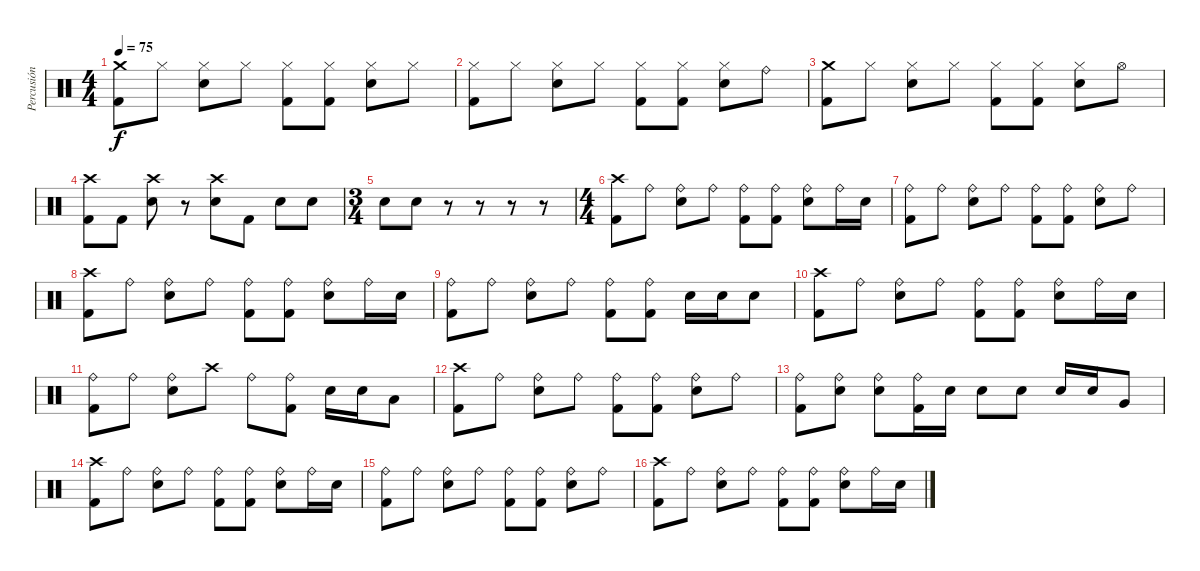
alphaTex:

\track ("Percusión" "Percusión") {instrument percussion}
\staff {score}
\articulation defaults
\ts (4 4)
\tempo 75
\clef neutral
\ks c
("Crash medium (hit)" "Kick (hit) 2").8{dy f} "Hi-Hat (closed)".8 ("Hi-Hat (closed)" "Electric Snare (hit)").8 "Hi-Hat (closed)".8 ("Hi-Hat (closed)" "Kick (hit) 2").8 ("Hi-Hat (closed)" "Kick (hit) 2").8 ("Hi-Hat (closed)" "Electric Snare (hit)").8 "Hi-Hat (closed)".8 |
("Hi-Hat (closed)" "Kick (hit) 2").8 "Hi-Hat (closed)".8 ("Hi-Hat (closed)" "Electric Snare (hit)").8 "Hi-Hat (closed)".8 ("Hi-Hat (closed)" "Kick (hit) 2").8 ("Hi-Hat (closed)" "Kick (hit) 2").8 ("Hi-Hat (closed)" "Electric Snare (hit)").8 "Ride (bell)".8 |
("Crash medium (hit)" "Kick (hit) 2").8 "Hi-Hat (closed)".8 ("Hi-Hat (closed)" "Electric Snare (hit)").8 "Hi-Hat (closed)".8 ("Hi-Hat (closed)" "Kick (hit) 2").8 ("Hi-Hat (closed)" "Kick (hit) 2").8 ("Hi-Hat (closed)" "Electric Snare (hit)").8 "Hi-Hat (open)".8 |
("Crash high (hit)" "Kick (hit) 2").8 "Kick (hit) 2".8 ("Crash high (hit)" "Electric Snare (hit)").8 r.8 ("Crash high (hit)" "Electric Snare (hit)").8 "Kick (hit) 2".8 "Electric Snare (hit)".8 "Electric Snare (hit)".8 |
\ts (3 4)
"Electric Snare (hit)".8 "Electric Snare (hit)".8 r.8 r.8 r.8 r.8 |
\ts (4 4)
("Crash high (hit)" "Kick (hit) 2").8 "Ride (bell)".8 ("Ride (bell)" "Electric Snare (hit)").8 "Ride (bell)".8 ("Ride (bell)" "Kick (hit) 2").8 ("Ride (bell)" "Kick (hit) 2").8 ("Ride (bell)" "Electric Snare (hit)").8 "Ride (bell)".16 "Electric Snare (hit)".16 |
("Ride (bell)" "Kick (hit) 2").8 "Ride (bell)".8 ("Ride (bell)" "Electric Snare (hit)").8 "Ride (bell)".8 ("Ride (bell)" "Kick (hit) 2").8 ("Ride (bell)" "Kick (hit) 2").8 ("Ride (bell)" "Electric Snare (hit)").8 "Ride (bell)".8 |
("Crash high (hit)" "Kick (hit) 2").8 "Ride (bell)".8 ("Ride (bell)" "Electric Snare (hit)").8 "Ride (bell)".8 ("Ride (bell)" "Kick (hit) 2").8 ("Ride (bell)" "Kick (hit) 2").8 ("Ride (bell)" "Electric Snare (hit)").8 "Ride (bell)".16 "Electric Snare (hit)".16 |
("Ride (bell)" "Kick (hit) 2").8 "Ride (bell)".8 ("Ride (bell)" "Electric Snare (hit)").8 "Ride (bell)".8 ("Ride (bell)" "Kick (hit) 2").8 ("Ride (bell)" "Kick (hit) 2").8 "Electric Snare (hit)".16 "Electric Snare (hit)".16 "Electric Snare (hit)".8 |
("Crash high (hit)" "Kick (hit) 2").8 "Ride (bell)".8 ("Ride (bell)" "Electric Snare (hit)").8 "Ride (bell)".8 ("Ride (bell)" "Kick (hit) 2").8 ("Ride (bell)" "Kick (hit) 2").8 ("Ride (bell)" "Electric Snare (hit)").8 "Ride (bell)".16 "Electric Snare (hit)".16 |
("Ride (bell)" "Kick (hit) 2").8 "Ride (bell)".8 ("Ride (bell)" "Electric Snare (hit)").8 "Crash high (hit)".8 "Ride (bell)".8 ("Ride (bell)" "Kick (hit) 2").8 "Electric Snare (hit)".16 "Electric Snare (hit)".16 "Low Tom (hit)".8 |
("Crash high (hit)" "Kick (hit) 2").8 "Ride (bell)".8 ("Ride (bell)" "Electric Snare (hit)").8 "Ride (bell)".8 ("Ride (bell)" "Kick (hit) 2").8 ("Ride (bell)" "Kick (hit) 2").8 ("Ride (bell)" "Electric Snare (hit)").8 "Ride (bell)".8 |
("Ride (bell)" "Kick (hit) 2").8 ("Ride (bell)" "Electric Snare (hit)").8 ("Ride (bell)" "Electric Snare (hit)").8 ("Ride (bell)" "Kick (hit) 2").16 "Electric Snare (hit)".16 "Electric Snare (hit)".8 "Electric Snare (hit)".8 "Electric Snare (hit)".16 "Electric Snare (hit)".16 "Very Low Tom (hit)".8 |
("Crash high (hit)" "Kick (hit) 2").8 "Ride (bell)".8 ("Ride (bell)" "Electric Snare (hit)").8 "Ride (bell)".8 ("Ride (bell)" "Kick (hit) 2").8 ("Ride (bell)" "Kick (hit) 2").8 ("Ride (bell)" "Electric Snare (hit)").8 "Ride (bell)".16 "Electric Snare (hit)".16 |
("Ride (bell)" "Kick (hit) 2").8 "Ride (bell)".8 ("Ride (bell)" "Electric Snare (hit)").8 "Ride (bell)".8 ("Ride (bell)" "Kick (hit) 2").8 ("Ride (bell)" "Kick (hit) 2").8 ("Ride (bell)" "Electric Snare (hit)").8 "Ride (bell)".8 |
("Crash high (hit)" "Kick (hit) 2").8 "Ride (bell)".8 ("Ride (bell)" "Electric Snare (hit)").8 "Ride (bell)".8 ("Ride (bell)" "Kick (hit) 2").8 ("Ride (bell)" "Kick (hit) 2").8 ("Ride (bell)" "Electric Snare (hit)").8 "Ride (bell)".16 "Electric Snare (hit)".16
